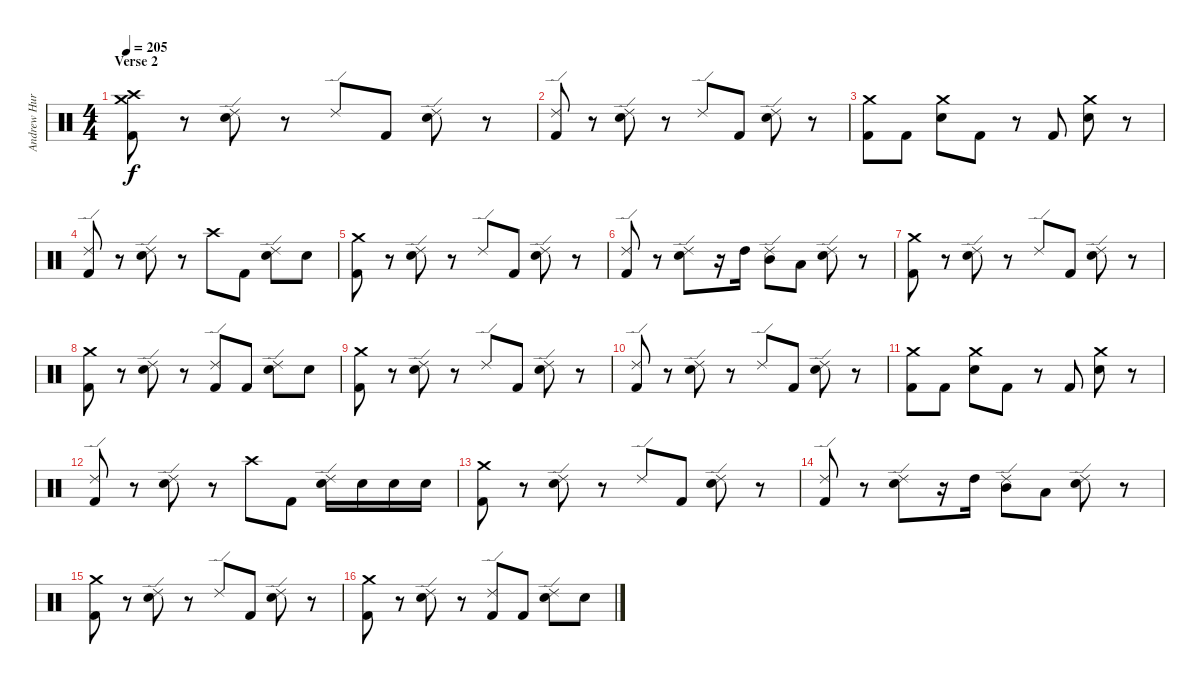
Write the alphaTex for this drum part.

\track ("Andrew Hurley (Drums)" "Andrew Hur") {instrument percussion}
\staff {score}
\articulation defaults
\ts (4 4)
\section ("" "Verse 2")
\tempo 205
\clef neutral
\ks c
("Crash high (hit)" "Crash medium (hit)" "Kick (hit) 2").8{dy f} r.8 ("Ride (edge) 2" "Electric Snare (hit)").8 r.8 "Ride (edge) 2".8 "Kick (hit) 2".8 ("Ride (edge) 2" "Electric Snare (hit)").8 r.8 |
("Ride (edge) 2" "Kick (hit) 2").8 r.8 ("Ride (edge) 2" "Electric Snare (hit)").8 r.8 "Ride (edge) 2".8 "Kick (hit) 2".8 ("Ride (edge) 2" "Electric Snare (hit)").8 r.8 |
("Crash medium (hit)" "Kick (hit) 2").8 "Kick (hit) 2".8 ("Crash medium (hit)" "Electric Snare (hit)").8 "Kick (hit) 2".8 r.8 "Kick (hit) 2".8 ("Crash medium (hit)" "Electric Snare (hit)").8 r.8 |
("Ride (edge) 2" "Kick (hit) 2").8 r.8 ("Ride (edge) 2" "Electric Snare (hit)").8 r.8 "Crash high (hit)".8 "Kick (hit) 2".8 ("Ride (edge) 2" "Electric Snare (hit)").8 "Electric Snare (hit)".8 |
("Crash medium (hit)" "Kick (hit) 2").8 r.8 ("Ride (edge) 2" "Electric Snare (hit)").8 r.8 "Ride (edge) 2".8 "Kick (hit) 2".8 ("Ride (edge) 2" "Electric Snare (hit)").8 r.8 |
("Ride (edge) 2" "Kick (hit) 2").8 r.8 ("Ride (edge) 2" "Electric Snare (hit)").8 r.16 "High Tom (hit)".16 ("Ride (edge) 2" "Mid Tom (hit)").8 "Low Tom (hit)".8 ("Ride (edge) 2" "Electric Snare (hit)").8 r.8 |
("Crash medium (hit)" "Kick (hit) 2").8 r.8 ("Ride (edge) 2" "Electric Snare (hit)").8 r.8 "Ride (edge) 2".8 "Kick (hit) 2".8 ("Ride (edge) 2" "Electric Snare (hit)").8 r.8 |
("Crash medium (hit)" "Kick (hit) 2").8 r.8 ("Ride (edge) 2" "Electric Snare (hit)").8 r.8 ("Ride (edge) 2" "Kick (hit) 2").8 "Kick (hit) 2".8 ("Ride (edge) 2" "Electric Snare (hit)").8 "Electric Snare (hit)".8 |
("Crash medium (hit)" "Kick (hit) 2").8 r.8 ("Ride (edge) 2" "Electric Snare (hit)").8 r.8 "Ride (edge) 2".8 "Kick (hit) 2".8 ("Ride (edge) 2" "Electric Snare (hit)").8 r.8 |
("Ride (edge) 2" "Kick (hit) 2").8 r.8 ("Ride (edge) 2" "Electric Snare (hit)").8 r.8 "Ride (edge) 2".8 "Kick (hit) 2".8 ("Ride (edge) 2" "Electric Snare (hit)").8 r.8 |
("Crash medium (hit)" "Kick (hit) 2").8 "Kick (hit) 2".8 ("Crash medium (hit)" "Electric Snare (hit)").8 "Kick (hit) 2".8 r.8 "Kick (hit) 2".8 ("Crash medium (hit)" "Electric Snare (hit)").8 r.8 |
("Ride (edge) 2" "Kick (hit) 2").8 r.8 ("Ride (edge) 2" "Electric Snare (hit)").8 r.8 "Crash high (hit)".8 "Kick (hit) 2".8 ("Ride (edge) 2" "Electric Snare (hit)").16 "Electric Snare (hit)".16 "Electric Snare (hit)".16 "Electric Snare (hit)".16 |
("Crash medium (hit)" "Kick (hit) 2").8 r.8 ("Ride (edge) 2" "Electric Snare (hit)").8 r.8 "Ride (edge) 2".8 "Kick (hit) 2".8 ("Ride (edge) 2" "Electric Snare (hit)").8 r.8 |
("Ride (edge) 2" "Kick (hit) 2").8 r.8 ("Ride (edge) 2" "Electric Snare (hit)").8 r.16 "High Tom (hit)".16 ("Ride (edge) 2" "Mid Tom (hit)").8 "Low Tom (hit)".8 ("Ride (edge) 2" "Electric Snare (hit)").8 r.8 |
("Crash medium (hit)" "Kick (hit) 2").8 r.8 ("Ride (edge) 2" "Electric Snare (hit)").8 r.8 "Ride (edge) 2".8 "Kick (hit) 2".8 ("Ride (edge) 2" "Electric Snare (hit)").8 r.8 |
("Crash medium (hit)" "Kick (hit) 2").8 r.8 ("Ride (edge) 2" "Electric Snare (hit)").8 r.8 ("Ride (edge) 2" "Kick (hit) 2").8 "Kick (hit) 2".8 ("Ride (edge) 2" "Electric Snare (hit)").8 "Electric Snare (hit)".8
